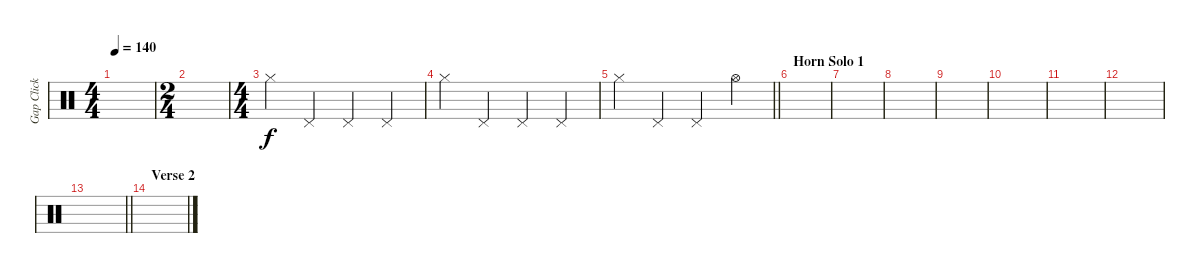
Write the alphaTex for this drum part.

\track ("Gap Click" "Gap Click") {instrument percussion}
\staff {score}
\articulation defaults
\ts (4 4)
\tempo 140
\clef neutral
\ks c
|
\ts (2 4)
|
\ts (4 4)
"Hi-Hat (closed)".4 "Pedal Hi-Hat (hit)".4 "Pedal Hi-Hat (hit)".4 "Pedal Hi-Hat (hit)".4 |
"Hi-Hat (closed)".4 "Pedal Hi-Hat (hit)".4 "Pedal Hi-Hat (hit)".4 "Pedal Hi-Hat (hit)".4 |
\barLineRight lightlight "Hi-Hat (closed)".4 "Pedal Hi-Hat (hit)".4 "Pedal Hi-Hat (hit)".4 "Hi-Hat (open)".4
|
\section ("" "Horn Solo 1")
|
|
|
|
|
|
|
\barLineRight lightlight
|
\section ("" "Verse 2")
